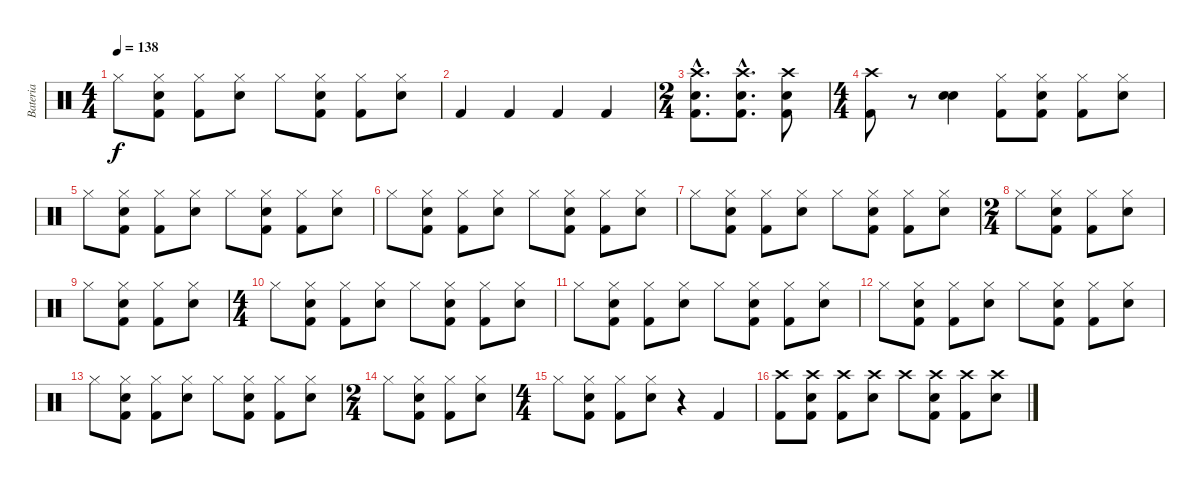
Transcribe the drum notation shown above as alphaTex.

\track ("Bateria" "Bateria") {instrument percussion}
\staff {score}
\articulation defaults
\ts (4 4)
\tempo 138
\clef neutral
\ks c "Hi-Hat (closed)".8{dy f}
("Electric Snare (hit)" "Hi-Hat (closed)" "Kick (hit) 2").8 ("Hi-Hat (closed)" "Kick (hit) 2").8 ("Electric Snare (hit)" "Hi-Hat (closed)").8 "Hi-Hat (closed)".8 ("Electric Snare (hit)" "Hi-Hat (closed)" "Kick (hit) 2").8 ("Hi-Hat (closed)" "Kick (hit) 2").8 ("Electric Snare (hit)" "Hi-Hat (closed)").8 |
"Kick (hit) 2".4 "Kick (hit) 2".4 "Kick (hit) 2".4 "Kick (hit) 2".4{volume 13} |
\ts (2 4)
("Electric Snare (hit)"{hac} "Crash high (hit)"{hac} "Kick (hit) 2"{hac}).8{d} ("Electric Snare (hit)"{hac} "Crash high (hit)"{hac} "Kick (hit) 2"{hac}).8{d} ("Electric Snare (hit)" "Crash high (hit)" "Kick (hit) 2").8 |
\ts (4 4)
("Kick (hit) 2" "Crash high (hit)").8 r.8 ("Electric Snare (hit)" "Electric Snare (hit)").4 ("Hi-Hat (closed)" "Kick (hit) 2").8 ("Electric Snare (hit)" "Hi-Hat (closed)" "Kick (hit) 2").8 ("Hi-Hat (closed)" "Kick (hit) 2").8 ("Electric Snare (hit)" "Hi-Hat (closed)").8 |
"Hi-Hat (closed)".8 ("Electric Snare (hit)" "Hi-Hat (closed)" "Kick (hit) 2").8 ("Hi-Hat (closed)" "Kick (hit) 2").8 ("Electric Snare (hit)" "Hi-Hat (closed)").8 "Hi-Hat (closed)".8 ("Electric Snare (hit)" "Hi-Hat (closed)" "Kick (hit) 2").8 ("Hi-Hat (closed)" "Kick (hit) 2").8 ("Electric Snare (hit)" "Hi-Hat (closed)").8 |
"Hi-Hat (closed)".8 ("Electric Snare (hit)" "Hi-Hat (closed)" "Kick (hit) 2").8 ("Hi-Hat (closed)" "Kick (hit) 2").8 ("Electric Snare (hit)" "Hi-Hat (closed)").8 "Hi-Hat (closed)".8 ("Electric Snare (hit)" "Hi-Hat (closed)" "Kick (hit) 2").8 ("Hi-Hat (closed)" "Kick (hit) 2").8 ("Electric Snare (hit)" "Hi-Hat (closed)").8 |
"Hi-Hat (closed)".8 ("Electric Snare (hit)" "Hi-Hat (closed)" "Kick (hit) 2").8 ("Hi-Hat (closed)" "Kick (hit) 2").8 ("Electric Snare (hit)" "Hi-Hat (closed)").8 "Hi-Hat (closed)".8 ("Electric Snare (hit)" "Hi-Hat (closed)" "Kick (hit) 2").8 ("Hi-Hat (closed)" "Kick (hit) 2").8 ("Electric Snare (hit)" "Hi-Hat (closed)").8 |
\ts (2 4)
"Hi-Hat (closed)".8 ("Electric Snare (hit)" "Hi-Hat (closed)" "Kick (hit) 2").8 ("Hi-Hat (closed)" "Kick (hit) 2").8 ("Electric Snare (hit)" "Hi-Hat (closed)").8 |
"Hi-Hat (closed)".8 ("Electric Snare (hit)" "Hi-Hat (closed)" "Kick (hit) 2").8 ("Hi-Hat (closed)" "Kick (hit) 2").8 ("Electric Snare (hit)" "Hi-Hat (closed)").8 |
\ts (4 4)
"Hi-Hat (closed)".8 ("Electric Snare (hit)" "Hi-Hat (closed)" "Kick (hit) 2").8 ("Hi-Hat (closed)" "Kick (hit) 2").8 ("Electric Snare (hit)" "Hi-Hat (closed)").8 "Hi-Hat (closed)".8 ("Electric Snare (hit)" "Hi-Hat (closed)" "Kick (hit) 2").8 ("Hi-Hat (closed)" "Kick (hit) 2").8 ("Electric Snare (hit)" "Hi-Hat (closed)").8 |
"Hi-Hat (closed)".8 ("Electric Snare (hit)" "Hi-Hat (closed)" "Kick (hit) 2").8 ("Hi-Hat (closed)" "Kick (hit) 2").8 ("Electric Snare (hit)" "Hi-Hat (closed)").8 "Hi-Hat (closed)".8 ("Electric Snare (hit)" "Hi-Hat (closed)" "Kick (hit) 2").8 ("Hi-Hat (closed)" "Kick (hit) 2").8 ("Electric Snare (hit)" "Hi-Hat (closed)").8 |
"Hi-Hat (closed)".8 ("Electric Snare (hit)" "Hi-Hat (closed)" "Kick (hit) 2").8 ("Hi-Hat (closed)" "Kick (hit) 2").8 ("Electric Snare (hit)" "Hi-Hat (closed)").8 "Hi-Hat (closed)".8 ("Electric Snare (hit)" "Hi-Hat (closed)" "Kick (hit) 2").8 ("Hi-Hat (closed)" "Kick (hit) 2").8 ("Electric Snare (hit)" "Hi-Hat (closed)").8 |
"Hi-Hat (closed)".8 ("Electric Snare (hit)" "Hi-Hat (closed)" "Kick (hit) 2").8 ("Hi-Hat (closed)" "Kick (hit) 2").8 ("Electric Snare (hit)" "Hi-Hat (closed)").8 "Hi-Hat (closed)".8 ("Electric Snare (hit)" "Hi-Hat (closed)" "Kick (hit) 2").8 ("Hi-Hat (closed)" "Kick (hit) 2").8 ("Electric Snare (hit)" "Hi-Hat (closed)").8 |
\ts (2 4)
"Hi-Hat (closed)".8 ("Electric Snare (hit)" "Hi-Hat (closed)" "Kick (hit) 2").8 ("Hi-Hat (closed)" "Kick (hit) 2").8 ("Electric Snare (hit)" "Hi-Hat (closed)").8 |
\ts (4 4)
"Hi-Hat (closed)".8 ("Electric Snare (hit)" "Hi-Hat (closed)" "Kick (hit) 2").8 ("Hi-Hat (closed)" "Kick (hit) 2").8 ("Electric Snare (hit)" "Hi-Hat (closed)").8 r.4 "Kick (hit) 2".4 |
("Crash high (hit)" "Kick (hit) 2").8{volume 16} ("Electric Snare (hit)" "Crash high (hit)" "Kick (hit) 2").8 ("Crash high (hit)" "Kick (hit) 2").8 ("Electric Snare (hit)" "Crash high (hit)").8 "Crash high (hit)".8 ("Electric Snare (hit)" "Crash high (hit)" "Kick (hit) 2").8 ("Crash high (hit)" "Kick (hit) 2").8 ("Electric Snare (hit)" "Crash high (hit)").8
